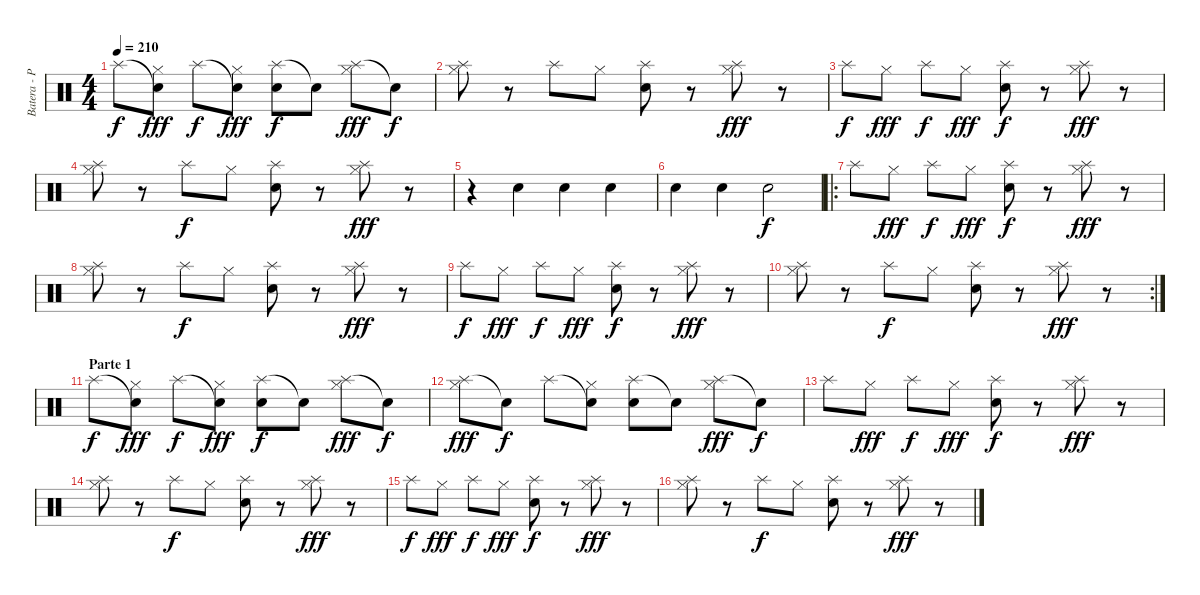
\track ("Batera - Pelado" "Batera - P") {instrument percussion}
\staff {score}
\articulation defaults
\ts (4 4)
\tempo 210
\clef neutral
\ks c "Splash (hit)".8{dy f}
("Snare (hit)"{t} "Hi-Hat (closed)").8{dy fff} "Splash (hit)".8{dy f} ("Snare (hit)"{t} "Hi-Hat (closed)").8{dy fff} ("Splash (hit)" "Electric Snare (hit)").8{dy f} "Snare (hit)"{t}.8 ("Splash (hit)" "Hi-Hat (closed)").8{dy fff} "Snare (hit)"{t}.8{dy f} |
("Splash (hit)" "Hi-Hat (closed)").8 r.8 "Splash (hit)".8 "Hi-Hat (closed)".8 ("Splash (hit)" "Electric Snare (hit)").8 r.8 ("Splash (hit)" "Hi-Hat (closed)").8{dy fff} r.8 |
"Splash (hit)".8{dy f} "Hi-Hat (closed)".8{dy fff} "Splash (hit)".8{dy f} "Hi-Hat (closed)".8{dy fff} ("Splash (hit)" "Electric Snare (hit)").8{dy f} r.8 ("Splash (hit)" "Hi-Hat (closed)").8{dy fff} r.8 |
("Splash (hit)" "Hi-Hat (closed)").8 r.8 "Splash (hit)".8{dy f} "Hi-Hat (closed)".8 ("Splash (hit)" "Electric Snare (hit)").8 r.8 ("Splash (hit)" "Hi-Hat (closed)").8{dy fff} r.8 |
r.4 "Electric Snare (hit)".4 "Electric Snare (hit)".4 "Electric Snare (hit)".4 |
"Electric Snare (hit)".4 "Electric Snare (hit)".4 "Electric Snare (hit)".2{dy f} |
\ro "Splash (hit)".8 "Hi-Hat (closed)".8{dy fff} "Splash (hit)".8{dy f} "Hi-Hat (closed)".8{dy fff}
("Splash (hit)" "Electric Snare (hit)").8{dy f} r.8 ("Splash (hit)" "Hi-Hat (closed)").8{dy fff} r.8 |
("Splash (hit)" "Hi-Hat (closed)").8 r.8 "Splash (hit)".8{dy f} "Hi-Hat (closed)".8 ("Splash (hit)" "Electric Snare (hit)").8 r.8 ("Splash (hit)" "Hi-Hat (closed)").8{dy fff} r.8 |
"Splash (hit)".8{dy f} "Hi-Hat (closed)".8{dy fff} "Splash (hit)".8{dy f} "Hi-Hat (closed)".8{dy fff} ("Splash (hit)" "Electric Snare (hit)").8{dy f} r.8 ("Splash (hit)" "Hi-Hat (closed)").8{dy fff} r.8 |
\rc 2
("Splash (hit)" "Hi-Hat (closed)").8 r.8 "Splash (hit)".8{dy f} "Hi-Hat (closed)".8 ("Splash (hit)" "Electric Snare (hit)").8 r.8 ("Splash (hit)" "Hi-Hat (closed)").8{dy fff} r.8 |
\section ("" "Parte 1")
"Splash (hit)".8{dy f} ("Snare (hit)"{t} "Hi-Hat (closed)").8{dy fff} "Splash (hit)".8{dy f} ("Snare (hit)"{t} "Hi-Hat (closed)").8{dy fff} ("Splash (hit)" "Electric Snare (hit)").8{dy f} "Snare (hit)"{t}.8 ("Splash (hit)" "Hi-Hat (closed)").8{dy fff} "Snare (hit)"{t}.8{dy f} |
("Splash (hit)" "Hi-Hat (closed)").8{dy fff} "Snare (hit)"{t}.8{dy f} "Splash (hit)".8 ("Snare (hit)"{t} "Hi-Hat (closed)").8 ("Splash (hit)" "Electric Snare (hit)").8 "Snare (hit)"{t}.8 ("Splash (hit)" "Hi-Hat (closed)").8{dy fff} "Snare (hit)"{t}.8{dy f} |
"Splash (hit)".8 "Hi-Hat (closed)".8{dy fff} "Splash (hit)".8{dy f} "Hi-Hat (closed)".8{dy fff} ("Splash (hit)" "Electric Snare (hit)").8{dy f} r.8 ("Splash (hit)" "Hi-Hat (closed)").8{dy fff} r.8 |
("Splash (hit)" "Hi-Hat (closed)").8 r.8 "Splash (hit)".8{dy f} "Hi-Hat (closed)".8 ("Splash (hit)" "Electric Snare (hit)").8 r.8 ("Splash (hit)" "Hi-Hat (closed)").8{dy fff} r.8 |
"Splash (hit)".8{dy f} "Hi-Hat (closed)".8{dy fff} "Splash (hit)".8{dy f} "Hi-Hat (closed)".8{dy fff} ("Splash (hit)" "Electric Snare (hit)").8{dy f} r.8 ("Splash (hit)" "Hi-Hat (closed)").8{dy fff} r.8 |
("Splash (hit)" "Hi-Hat (closed)").8 r.8 "Splash (hit)".8{dy f} "Hi-Hat (closed)".8 ("Splash (hit)" "Electric Snare (hit)").8 r.8 ("Splash (hit)" "Hi-Hat (closed)").8{dy fff} r.8
